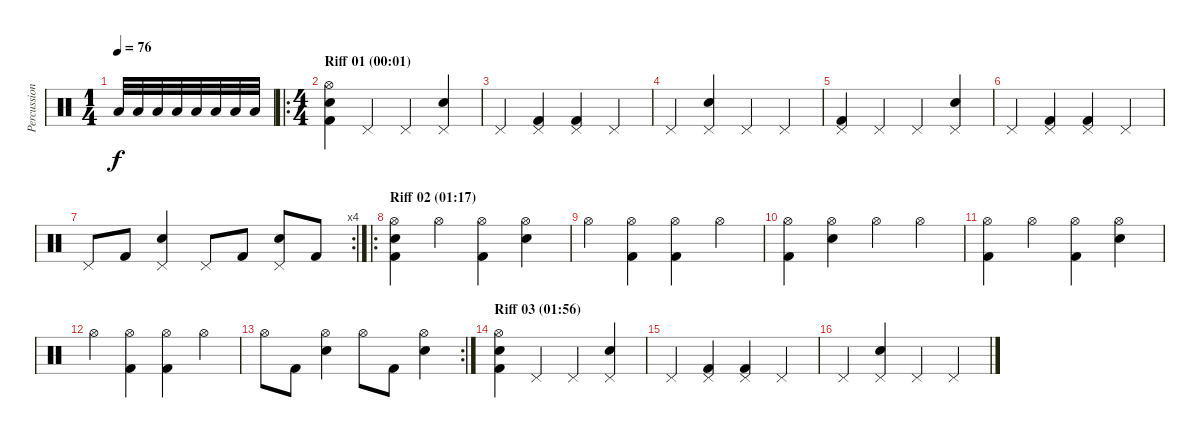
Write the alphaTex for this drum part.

\track ("Percussion" "Percussion") {instrument percussion}
\staff {score}
\articulation defaults
\ts (1 4)
\tempo 76
\clef neutral
\ks c "Low Tom (hit)".32{dy f volume 0} "Low Tom (hit)".32{volume 13} "Low Tom (hit)".32 "Low Tom (hit)".32 "Low Tom (hit)".32 "Low Tom (hit)".32 "Low Tom (hit)".32 "Low Tom (hit)".32
|
\ro
\ts (4 4)
\section ("" "Riff 01 (00:01)")
("Kick (hit) 2" "Snare (hit) 2" "Hi-Hat (open)").4 "Pedal Hi-Hat (hit)".4 "Pedal Hi-Hat (hit)".4 ("Snare (hit) 2" "Pedal Hi-Hat (hit)").4 |
"Pedal Hi-Hat (hit)".4 ("Kick (hit) 2" "Pedal Hi-Hat (hit)").4 ("Kick (hit) 2" "Pedal Hi-Hat (hit)").4 "Pedal Hi-Hat (hit)".4 |
"Pedal Hi-Hat (hit)".4 ("Snare (hit) 2" "Pedal Hi-Hat (hit)").4 "Pedal Hi-Hat (hit)".4 "Pedal Hi-Hat (hit)".4 |
("Kick (hit) 2" "Pedal Hi-Hat (hit)").4 "Pedal Hi-Hat (hit)".4 "Pedal Hi-Hat (hit)".4 ("Snare (hit) 2" "Pedal Hi-Hat (hit)").4 |
"Pedal Hi-Hat (hit)".4 ("Kick (hit) 2" "Pedal Hi-Hat (hit)").4 ("Kick (hit) 2" "Pedal Hi-Hat (hit)").4 "Pedal Hi-Hat (hit)".4 |
\rc 4 "Pedal Hi-Hat (hit)".8 "Kick (hit) 2".8
("Snare (hit) 2" "Pedal Hi-Hat (hit)").4 "Pedal Hi-Hat (hit)".8 "Kick (hit) 2".8 ("Snare (hit) 2" "Pedal Hi-Hat (hit)").8 "Kick (hit) 2".8 |
\ro
\section ("" "Riff 02 (01:17)")
("Kick (hit) 2" "Snare (hit) 2" "Hi-Hat (open)").4 "Hi-Hat (open)".4 ("Kick (hit) 2" "Hi-Hat (open)").4 ("Snare (hit) 2" "Hi-Hat (open)").4 |
"Hi-Hat (open)".4 ("Kick (hit) 2" "Hi-Hat (open)").4 ("Kick (hit) 2" "Hi-Hat (open)").4 "Hi-Hat (open)".4 |
("Kick (hit) 2" "Hi-Hat (open)").4 ("Snare (hit) 2" "Hi-Hat (open)").4 "Hi-Hat (open)".4 "Hi-Hat (open)".4 |
("Kick (hit) 2" "Hi-Hat (open)").4 "Hi-Hat (open)".4 ("Kick (hit) 2" "Hi-Hat (open)").4 ("Snare (hit) 2" "Hi-Hat (open)").4 |
"Hi-Hat (open)".4 ("Kick (hit) 2" "Hi-Hat (open)").4 ("Kick (hit) 2" "Hi-Hat (open)").4 "Hi-Hat (open)".4 |
\rc 2 "Hi-Hat (open)".8 "Kick (hit) 2".8
("Snare (hit) 2" "Hi-Hat (open)").4 "Hi-Hat (open)".8 "Kick (hit) 2".8 ("Snare (hit) 2" "Hi-Hat (open)").4 |
\section ("" "Riff 03 (01:56)")
("Kick (hit) 2" "Snare (hit) 2" "Hi-Hat (open)").4 "Pedal Hi-Hat (hit)".4 "Pedal Hi-Hat (hit)".4 ("Snare (hit) 2" "Pedal Hi-Hat (hit)").4 |
"Pedal Hi-Hat (hit)".4 ("Kick (hit) 2" "Pedal Hi-Hat (hit)").4 ("Kick (hit) 2" "Pedal Hi-Hat (hit)").4 "Pedal Hi-Hat (hit)".4 |
"Pedal Hi-Hat (hit)".4 ("Snare (hit) 2" "Pedal Hi-Hat (hit)").4 "Pedal Hi-Hat (hit)".4 "Pedal Hi-Hat (hit)".4
